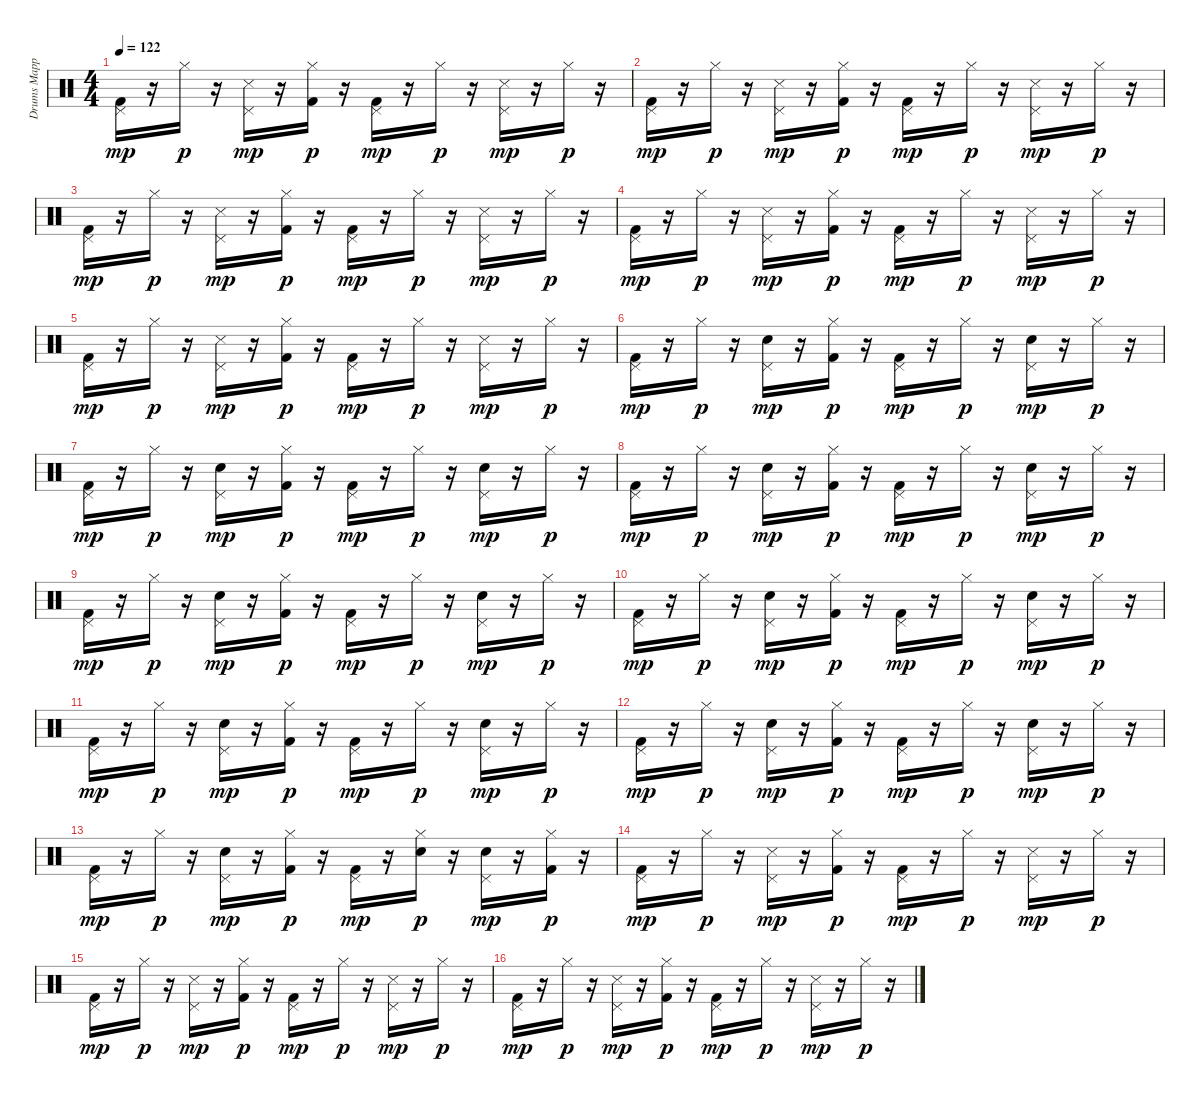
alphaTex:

\track ("Drums Mapped*merged" "Drums Mapp") {instrument percussion}
\staff {score}
\articulation defaults
\ts (4 4)
\tempo 122
\clef neutral
\ks c
("Kick (hit) 2" "Pedal Hi-Hat (hit)").16{dy mp} r.16 "Hi-Hat (closed)".16{dy p} r.16 ("Snare (side stick) 3" "Pedal Hi-Hat (hit)").16{dy mp} r.16 ("Kick (hit) 2" "Hi-Hat (closed)").16{dy p} r.16 ("Kick (hit) 2" "Pedal Hi-Hat (hit)").16{dy mp} r.16 "Hi-Hat (closed)".16{dy p} r.16 ("Snare (side stick) 3" "Pedal Hi-Hat (hit)").16{dy mp} r.16 "Hi-Hat (closed)".16{dy p} r.16 |
("Kick (hit) 2" "Pedal Hi-Hat (hit)").16{dy mp} r.16 "Hi-Hat (closed)".16{dy p} r.16 ("Snare (side stick) 3" "Pedal Hi-Hat (hit)").16{dy mp} r.16 ("Kick (hit) 2" "Hi-Hat (closed)").16{dy p} r.16 ("Kick (hit) 2" "Pedal Hi-Hat (hit)").16{dy mp} r.16 "Hi-Hat (closed)".16{dy p} r.16 ("Snare (side stick) 3" "Pedal Hi-Hat (hit)").16{dy mp} r.16 "Hi-Hat (closed)".16{dy p} r.16 |
("Kick (hit) 2" "Pedal Hi-Hat (hit)").16{dy mp} r.16 "Hi-Hat (closed)".16{dy p} r.16 ("Snare (side stick) 3" "Pedal Hi-Hat (hit)").16{dy mp} r.16 ("Kick (hit) 2" "Hi-Hat (closed)").16{dy p} r.16 ("Kick (hit) 2" "Pedal Hi-Hat (hit)").16{dy mp} r.16 "Hi-Hat (closed)".16{dy p} r.16 ("Snare (side stick) 3" "Pedal Hi-Hat (hit)").16{dy mp} r.16 "Hi-Hat (closed)".16{dy p} r.16 |
("Kick (hit) 2" "Pedal Hi-Hat (hit)").16{dy mp} r.16 "Hi-Hat (closed)".16{dy p} r.16 ("Snare (side stick) 3" "Pedal Hi-Hat (hit)").16{dy mp} r.16 ("Kick (hit) 2" "Hi-Hat (closed)").16{dy p} r.16 ("Kick (hit) 2" "Pedal Hi-Hat (hit)").16{dy mp} r.16 "Hi-Hat (closed)".16{dy p} r.16 ("Snare (side stick) 3" "Pedal Hi-Hat (hit)").16{dy mp} r.16 "Hi-Hat (closed)".16{dy p} r.16 |
("Kick (hit) 2" "Pedal Hi-Hat (hit)").16{dy mp} r.16 "Hi-Hat (closed)".16{dy p} r.16 ("Snare (side stick) 3" "Pedal Hi-Hat (hit)").16{dy mp} r.16 ("Kick (hit) 2" "Hi-Hat (closed)").16{dy p} r.16 ("Kick (hit) 2" "Pedal Hi-Hat (hit)").16{dy mp} r.16 "Hi-Hat (closed)".16{dy p} r.16 ("Snare (side stick) 3" "Pedal Hi-Hat (hit)").16{dy mp} r.16 "Hi-Hat (closed)".16{dy p} r.16 |
("Kick (hit) 2" "Pedal Hi-Hat (hit)").16{dy mp} r.16 "Hi-Hat (closed)".16{dy p} r.16 ("Electric Snare (hit)" "Pedal Hi-Hat (hit)").16{dy mp} r.16 ("Kick (hit) 2" "Hi-Hat (closed)").16{dy p} r.16 ("Kick (hit) 2" "Pedal Hi-Hat (hit)").16{dy mp} r.16 "Hi-Hat (closed)".16{dy p} r.16 ("Electric Snare (hit)" "Pedal Hi-Hat (hit)").16{dy mp} r.16 "Hi-Hat (closed)".16{dy p} r.16 |
("Kick (hit) 2" "Pedal Hi-Hat (hit)").16{dy mp} r.16 "Hi-Hat (closed)".16{dy p} r.16 ("Electric Snare (hit)" "Pedal Hi-Hat (hit)").16{dy mp} r.16 ("Kick (hit) 2" "Hi-Hat (closed)").16{dy p} r.16 ("Kick (hit) 2" "Pedal Hi-Hat (hit)").16{dy mp} r.16 "Hi-Hat (closed)".16{dy p} r.16 ("Electric Snare (hit)" "Pedal Hi-Hat (hit)").16{dy mp} r.16 "Hi-Hat (closed)".16{dy p} r.16 |
("Kick (hit) 2" "Pedal Hi-Hat (hit)").16{dy mp} r.16 "Hi-Hat (closed)".16{dy p} r.16 ("Electric Snare (hit)" "Pedal Hi-Hat (hit)").16{dy mp} r.16 ("Kick (hit) 2" "Hi-Hat (closed)").16{dy p} r.16 ("Kick (hit) 2" "Pedal Hi-Hat (hit)").16{dy mp} r.16 "Hi-Hat (closed)".16{dy p} r.16 ("Electric Snare (hit)" "Pedal Hi-Hat (hit)").16{dy mp} r.16 "Hi-Hat (closed)".16{dy p} r.16 |
("Kick (hit) 2" "Pedal Hi-Hat (hit)").16{dy mp} r.16 "Hi-Hat (closed)".16{dy p} r.16 ("Electric Snare (hit)" "Pedal Hi-Hat (hit)").16{dy mp} r.16 ("Kick (hit) 2" "Hi-Hat (closed)").16{dy p} r.16 ("Kick (hit) 2" "Pedal Hi-Hat (hit)").16{dy mp} r.16 "Hi-Hat (closed)".16{dy p} r.16 ("Electric Snare (hit)" "Pedal Hi-Hat (hit)").16{dy mp} r.16 "Hi-Hat (closed)".16{dy p} r.16 |
("Kick (hit) 2" "Pedal Hi-Hat (hit)").16{dy mp} r.16 "Hi-Hat (closed)".16{dy p} r.16 ("Electric Snare (hit)" "Pedal Hi-Hat (hit)").16{dy mp} r.16 ("Kick (hit) 2" "Hi-Hat (closed)").16{dy p} r.16 ("Kick (hit) 2" "Pedal Hi-Hat (hit)").16{dy mp} r.16 "Hi-Hat (closed)".16{dy p} r.16 ("Electric Snare (hit)" "Pedal Hi-Hat (hit)").16{dy mp} r.16 "Hi-Hat (closed)".16{dy p} r.16 |
("Kick (hit) 2" "Pedal Hi-Hat (hit)").16{dy mp} r.16 "Hi-Hat (closed)".16{dy p} r.16 ("Electric Snare (hit)" "Pedal Hi-Hat (hit)").16{dy mp} r.16 ("Kick (hit) 2" "Hi-Hat (closed)").16{dy p} r.16 ("Kick (hit) 2" "Pedal Hi-Hat (hit)").16{dy mp} r.16 "Hi-Hat (closed)".16{dy p} r.16 ("Electric Snare (hit)" "Pedal Hi-Hat (hit)").16{dy mp} r.16 "Hi-Hat (closed)".16{dy p} r.16 |
("Kick (hit) 2" "Pedal Hi-Hat (hit)").16{dy mp} r.16 "Hi-Hat (closed)".16{dy p} r.16 ("Electric Snare (hit)" "Pedal Hi-Hat (hit)").16{dy mp} r.16 ("Kick (hit) 2" "Hi-Hat (closed)").16{dy p} r.16 ("Kick (hit) 2" "Pedal Hi-Hat (hit)").16{dy mp} r.16 "Hi-Hat (closed)".16{dy p} r.16 ("Electric Snare (hit)" "Pedal Hi-Hat (hit)").16{dy mp} r.16 "Hi-Hat (closed)".16{dy p} r.16 |
("Kick (hit) 2" "Pedal Hi-Hat (hit)").16{dy mp} r.16 "Hi-Hat (closed)".16{dy p} r.16 ("Electric Snare (hit)" "Pedal Hi-Hat (hit)").16{dy mp} r.16 ("Kick (hit) 2" "Hi-Hat (closed)").16{dy p} r.16 ("Kick (hit) 2" "Pedal Hi-Hat (hit)").16{dy mp} r.16 ("Electric Snare (hit)" "Hi-Hat (closed)").16{dy p} r.16 ("Electric Snare (hit)" "Pedal Hi-Hat (hit)").16{dy mp} r.16 ("Kick (hit) 2" "Hi-Hat (closed)").16{dy p} r.16 |
("Kick (hit) 2" "Pedal Hi-Hat (hit)").16{dy mp} r.16 "Hi-Hat (closed)".16{dy p} r.16 ("Snare (side stick) 3" "Pedal Hi-Hat (hit)").16{dy mp} r.16 ("Kick (hit) 2" "Hi-Hat (closed)").16{dy p} r.16 ("Kick (hit) 2" "Pedal Hi-Hat (hit)").16{dy mp} r.16 "Hi-Hat (closed)".16{dy p} r.16 ("Snare (side stick) 3" "Pedal Hi-Hat (hit)").16{dy mp} r.16 "Hi-Hat (closed)".16{dy p} r.16 |
("Kick (hit) 2" "Pedal Hi-Hat (hit)").16{dy mp} r.16 "Hi-Hat (closed)".16{dy p} r.16 ("Snare (side stick) 3" "Pedal Hi-Hat (hit)").16{dy mp} r.16 ("Kick (hit) 2" "Hi-Hat (closed)").16{dy p} r.16 ("Kick (hit) 2" "Pedal Hi-Hat (hit)").16{dy mp} r.16 "Hi-Hat (closed)".16{dy p} r.16 ("Snare (side stick) 3" "Pedal Hi-Hat (hit)").16{dy mp} r.16 "Hi-Hat (closed)".16{dy p} r.16 |
("Kick (hit) 2" "Pedal Hi-Hat (hit)").16{dy mp} r.16 "Hi-Hat (closed)".16{dy p} r.16 ("Snare (side stick) 3" "Pedal Hi-Hat (hit)").16{dy mp} r.16 ("Kick (hit) 2" "Hi-Hat (closed)").16{dy p} r.16 ("Kick (hit) 2" "Pedal Hi-Hat (hit)").16{dy mp} r.16 "Hi-Hat (closed)".16{dy p} r.16 ("Snare (side stick) 3" "Pedal Hi-Hat (hit)").16{dy mp} r.16 "Hi-Hat (closed)".16{dy p} r.16
